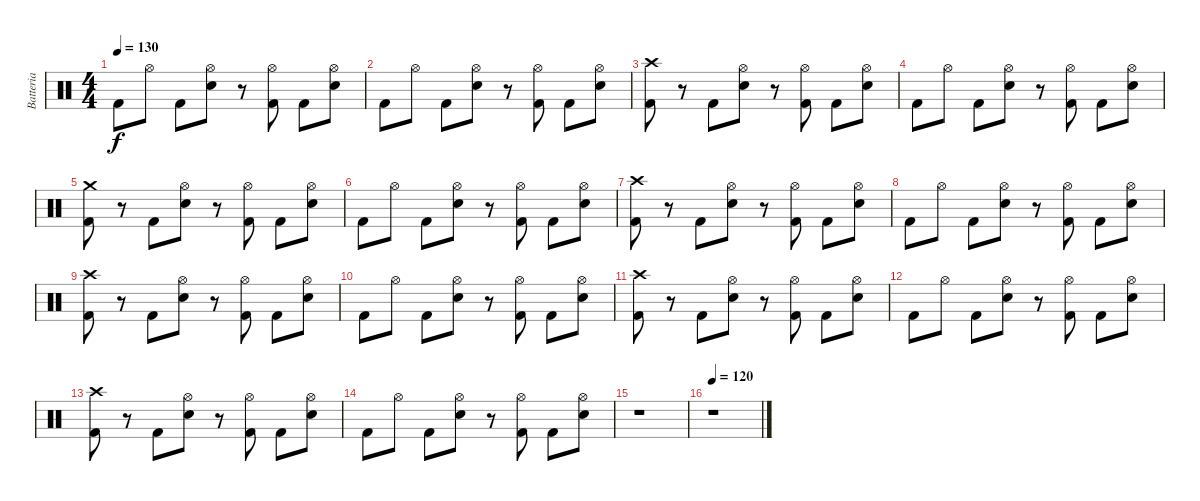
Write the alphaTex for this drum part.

\track ("Batteria" "Batteria") {instrument percussion}
\staff {score}
\articulation defaults
\ts (4 4)
\tempo 130
\clef neutral
\ks c "Kick (hit) 2".8{dy f} "Hi-Hat (open)".8 "Kick (hit) 2".8
("Hi-Hat (open)" "Electric Snare (hit)").8 r.8 ("Hi-Hat (open)" "Kick (hit) 2").8 "Kick (hit) 2".8 ("Hi-Hat (open)" "Electric Snare (hit)").8 |
"Kick (hit) 2".8 "Hi-Hat (open)".8 "Kick (hit) 2".8 ("Electric Snare (hit)" "Hi-Hat (open)").8 r.8 ("Kick (hit) 2" "Hi-Hat (open)").8 "Kick (hit) 2".8 ("Electric Snare (hit)" "Hi-Hat (open)").8 |
("Crash high (hit)" "Kick (hit) 2").8 r.8 "Kick (hit) 2".8 ("Hi-Hat (open)" "Electric Snare (hit)").8 r.8 ("Hi-Hat (open)" "Kick (hit) 2").8 "Kick (hit) 2".8 ("Hi-Hat (open)" "Electric Snare (hit)").8 |
"Kick (hit) 2".8 "Hi-Hat (open)".8 "Kick (hit) 2".8 ("Electric Snare (hit)" "Hi-Hat (open)").8 r.8 ("Kick (hit) 2" "Hi-Hat (open)").8 "Kick (hit) 2".8 ("Electric Snare (hit)" "Hi-Hat (open)").8 |
("Crash medium (hit)" "Kick (hit) 2").8 r.8 "Kick (hit) 2".8 ("Hi-Hat (open)" "Electric Snare (hit)").8 r.8 ("Hi-Hat (open)" "Kick (hit) 2").8 "Kick (hit) 2".8 ("Hi-Hat (open)" "Electric Snare (hit)").8 |
"Kick (hit) 2".8 "Hi-Hat (open)".8 "Kick (hit) 2".8 ("Electric Snare (hit)" "Hi-Hat (open)").8 r.8 ("Kick (hit) 2" "Hi-Hat (open)").8 "Kick (hit) 2".8 ("Electric Snare (hit)" "Hi-Hat (open)").8 |
("Crash high (hit)" "Kick (hit) 2").8 r.8 "Kick (hit) 2".8 ("Hi-Hat (open)" "Electric Snare (hit)").8 r.8 ("Hi-Hat (open)" "Kick (hit) 2").8 "Kick (hit) 2".8 ("Hi-Hat (open)" "Electric Snare (hit)").8 |
"Kick (hit) 2".8 "Hi-Hat (open)".8 "Kick (hit) 2".8 ("Electric Snare (hit)" "Hi-Hat (open)").8 r.8 ("Kick (hit) 2" "Hi-Hat (open)").8 "Kick (hit) 2".8 ("Electric Snare (hit)" "Hi-Hat (open)").8 |
("Crash high (hit)" "Kick (hit) 2").8 r.8 "Kick (hit) 2".8 ("Hi-Hat (open)" "Electric Snare (hit)").8 r.8 ("Hi-Hat (open)" "Kick (hit) 2").8 "Kick (hit) 2".8 ("Hi-Hat (open)" "Electric Snare (hit)").8 |
"Kick (hit) 2".8 "Hi-Hat (open)".8 "Kick (hit) 2".8 ("Electric Snare (hit)" "Hi-Hat (open)").8 r.8 ("Kick (hit) 2" "Hi-Hat (open)").8 "Kick (hit) 2".8 ("Electric Snare (hit)" "Hi-Hat (open)").8 |
("Crash high (hit)" "Kick (hit) 2").8 r.8 "Kick (hit) 2".8 ("Hi-Hat (open)" "Electric Snare (hit)").8 r.8 ("Hi-Hat (open)" "Kick (hit) 2").8 "Kick (hit) 2".8 ("Hi-Hat (open)" "Electric Snare (hit)").8 |
"Kick (hit) 2".8 "Hi-Hat (open)".8 "Kick (hit) 2".8 ("Electric Snare (hit)" "Hi-Hat (open)").8 r.8 ("Kick (hit) 2" "Hi-Hat (open)").8 "Kick (hit) 2".8 ("Electric Snare (hit)" "Hi-Hat (open)").8 |
("Crash high (hit)" "Kick (hit) 2").8 r.8 "Kick (hit) 2".8 ("Hi-Hat (open)" "Electric Snare (hit)").8 r.8 ("Hi-Hat (open)" "Kick (hit) 2").8 "Kick (hit) 2".8 ("Hi-Hat (open)" "Electric Snare (hit)").8 |
"Kick (hit) 2".8 "Hi-Hat (open)".8 "Kick (hit) 2".8 ("Electric Snare (hit)" "Hi-Hat (open)").8 r.8 ("Kick (hit) 2" "Hi-Hat (open)").8 "Kick (hit) 2".8 ("Electric Snare (hit)" "Hi-Hat (open)").8 |
r.1 |
\tempo 120
r.1
